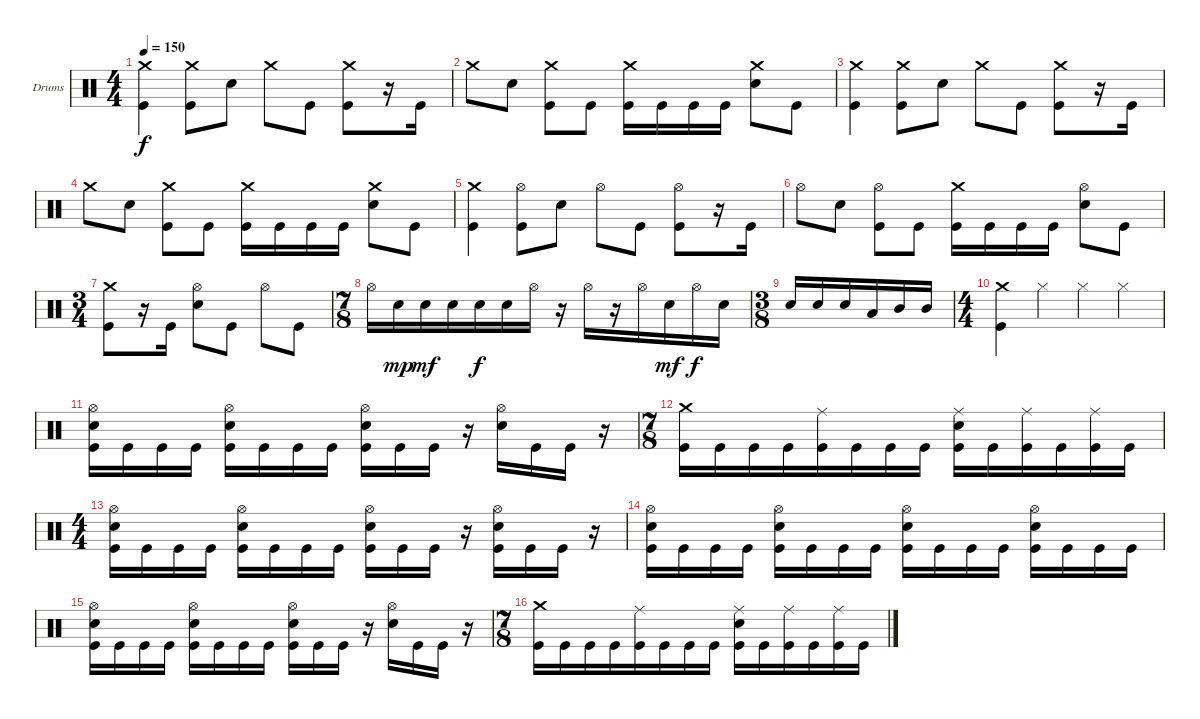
\defaultSystemsLayout 4
\bracketExtendMode groupsimilarinstruments
\firstSystemTrackNameOrientation horizontal
\otherSystemsTrackNameOrientation horizontal
\track ("Moe Carlson" "Drums") {instrument percussion}
\staff {score}
\articulation defaults
\ts (4 4)
\tempo 150
\clef neutral
\scale
0.333333
\ks c
("Kick (hit)" "Crash medium (hit)").4{dy f} ("Crash medium (hit)" "Kick (hit)").8 "Snare (hit) 2".8 "Crash medium (hit)".8 "Kick (hit)".8 ("Kick (hit)" "Crash medium (hit)").8 r.16 "Kick (hit)".16 |
\scale
0.333333 "Crash medium (hit)".8 "Snare (hit) 2".8 ("Crash medium (hit)" "Kick (hit)").8 "Kick (hit)".8 ("Kick (hit)" "Crash medium (hit)").16 "Kick (hit)".16 "Kick (hit)".16 "Kick (hit)".16 ("Snare (hit) 2" "Crash medium (hit)").8 "Kick (hit)".8 |
\scale
0.333333 ("Kick (hit)" "Crash medium (hit)").4 ("Crash medium (hit)" "Kick (hit)").8 "Snare (hit) 2".8 "Crash medium (hit)".8 "Kick (hit)".8 ("Kick (hit)" "Crash medium (hit)").8 r.16 "Kick (hit)".16 |
\scale
0.333333 "Crash medium (hit)".8 "Snare (hit) 2".8 ("Crash medium (hit)" "Kick (hit)").8 "Kick (hit)".8 ("Kick (hit)" "Crash medium (hit)").16 "Kick (hit)".16 "Kick (hit)".16 "Kick (hit)".16 ("Snare (hit) 2" "Crash medium (hit)").8 "Kick (hit)".8 |
\scale
0.333333 ("Kick (hit)" "Crash medium (hit)").4 ("Kick (hit)" "Hi-Hat (open)").8 "Snare (hit) 2".8 "Hi-Hat (open)".8 "Kick (hit)".8 ("Kick (hit)" "Hi-Hat (open)").8 r.16 "Kick (hit)".16 |
\scale
0.333333 "Hi-Hat (open)".8 "Snare (hit) 2".8 ("Kick (hit)" "Hi-Hat (open)").8 "Kick (hit)".8 ("Kick (hit)" "Crash medium (hit)").16 "Kick (hit)".16 "Kick (hit)".16 "Kick (hit)".16 ("Snare (hit) 2" "Hi-Hat (open)").8 "Kick (hit)".8 |
\ts (3 4)
\scale
0.474178 ("Kick (hit)" "Crash medium (hit)").8 r.16 "Kick (hit)".16 ("Snare (hit) 2" "Hi-Hat (open)").8 "Kick (hit)".8 "Hi-Hat (open)".8 "Kick (hit)".8 |
\ts (7 8)
\scale
0.262911 "Hi-Hat (open)".16 "Snare (hit) 2".16{dy mp} "Snare (hit) 2".16{dy mf} "Snare (hit) 2".16 "Snare (hit) 2".16{dy f} "Snare (hit) 2".16 "Hi-Hat (open)".16 r.16 "Hi-Hat (open)".16 r.16 "Hi-Hat (open)".16 "Snare (hit) 2".16{dy mf} "Hi-Hat (open)".16{dy f} "Snare (hit) 2".16 |
\ts (3 8)
\scale
0.280734 "Snare (hit) 2".16{beam invert} "Snare (hit) 2".16 "Snare (hit) 2".16 "Low Tom (hit)".16 "Mid Tom (hit)".16 "Mid Tom (hit)".16 |
\ts (4 4)
\scale
0.170566 ("Kick (hit)" "Crash medium (hit)").4 "Hi-Hat (closed)".4 "Hi-Hat (closed)".4 "Hi-Hat (closed)".4 |
\scale
0.308843 ("Kick (hit)" "Hi-Hat (open)" "Snare (hit) 2").16 "Kick (hit)".16 "Kick (hit)".16 "Kick (hit)".16 ("Kick (hit)" "Hi-Hat (open)" "Snare (hit) 2").16 "Kick (hit)".16 "Kick (hit)".16 "Kick (hit)".16 ("Kick (hit)" "Hi-Hat (open)" "Snare (hit) 2").16 "Kick (hit)".16 "Kick (hit)".16 r.16 ("Hi-Hat (open)" "Snare (hit) 2").16 "Kick (hit)".16 "Kick (hit)".16 r.16 |
\ts (7 8)
\scale
0.391473 ("Crash medium (hit)" "Kick (hit)").16 "Kick (hit)".16 "Kick (hit)".16 "Kick (hit)".16 ("Kick (hit)" "Ride (middle)").16 "Kick (hit)".16 "Kick (hit)".16 "Kick (hit)".16 ("Kick (hit)" "Ride (middle)" "Snare (hit) 2").16 "Kick (hit)".16 ("Kick (hit)" "Ride (middle)").16 "Kick (hit)".16 ("Kick (hit)" "Ride (middle)").16 "Kick (hit)".16 |
\ts (4 4)
\scale
0.391473 ("Kick (hit)" "Snare (hit) 2" "Hi-Hat (open)").16 "Kick (hit)".16 "Kick (hit)".16 "Kick (hit)".16 ("Kick (hit)" "Hi-Hat (open)" "Snare (hit) 2").16 "Kick (hit)".16 "Kick (hit)".16 "Kick (hit)".16 ("Kick (hit)" "Hi-Hat (open)" "Snare (hit) 2").16 "Kick (hit)".16 "Kick (hit)".16 r.16 ("Kick (hit)" "Snare (hit) 2" "Hi-Hat (open)").16 "Kick (hit)".16 "Kick (hit)".16 r.16 |
\scale
0.262911 ("Kick (hit)" "Hi-Hat (open)" "Snare (hit) 2").16 "Kick (hit)".16 "Kick (hit)".16 "Kick (hit)".16 ("Kick (hit)" "Hi-Hat (open)" "Snare (hit) 2").16 "Kick (hit)".16 "Kick (hit)".16 "Kick (hit)".16 ("Kick (hit)" "Hi-Hat (open)" "Snare (hit) 2").16 "Kick (hit)".16 "Kick (hit)".16 "Kick (hit)".16 ("Kick (hit)" "Hi-Hat (open)" "Snare (hit) 2").16 "Kick (hit)".16 "Kick (hit)".16 "Kick (hit)".16 |
\scale
0.262911 ("Kick (hit)" "Hi-Hat (open)" "Snare (hit) 2").16 "Kick (hit)".16 "Kick (hit)".16 "Kick (hit)".16 ("Kick (hit)" "Hi-Hat (open)" "Snare (hit) 2").16 "Kick (hit)".16 "Kick (hit)".16 "Kick (hit)".16 ("Kick (hit)" "Hi-Hat (open)" "Snare (hit) 2").16 "Kick (hit)".16 "Kick (hit)".16 r.16 ("Hi-Hat (open)" "Snare (hit) 2").16 "Kick (hit)".16 "Kick (hit)".16 r.16 |
\ts (7 8)
\scale
0.474178 ("Crash medium (hit)" "Kick (hit)").16 "Kick (hit)".16 "Kick (hit)".16 "Kick (hit)".16 ("Kick (hit)" "Ride (middle)").16 "Kick (hit)".16 "Kick (hit)".16 "Kick (hit)".16 ("Kick (hit)" "Ride (middle)" "Snare (hit) 2").16 "Kick (hit)".16 ("Kick (hit)" "Ride (middle)").16 "Kick (hit)".16 ("Kick (hit)" "Ride (middle)").16 "Kick (hit)".16
